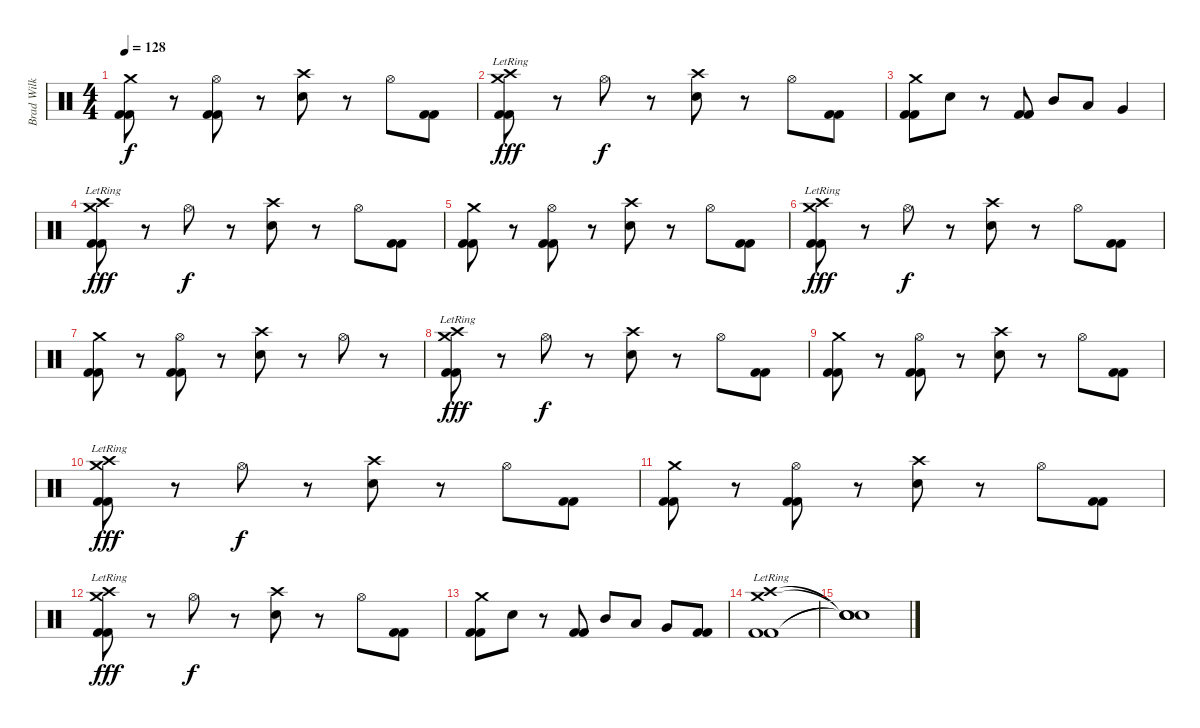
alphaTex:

\track ("Brad Wilk" "Brad Wilk") {instrument percussion}
\staff {score}
\articulation defaults
\ts (4 4)
\tempo 128
\clef neutral
\ks c
("Crash medium (hit)" "Kick (hit) 2" "Kick (hit) 2").8{dy f} r.8 ("Hi-Hat (open)" "Kick (hit) 2" "Kick (hit) 2").8 r.8 ("Crash high (hit)" "Electric Snare (hit)").8 r.8 "Hi-Hat (open)".8 ("Kick (hit) 2" "Kick (hit) 2").8 |
("Crash high (hit)"{lr} "Crash medium (hit)"{lr} "Kick (hit) 2" "Kick (hit) 2").8{dy fff} r.8 "Hi-Hat (open)".8{dy f} r.8 ("Crash high (hit)" "Electric Snare (hit)").8 r.8 "Hi-Hat (open)".8 ("Kick (hit) 2" "Kick (hit) 2").8 |
("Crash medium (hit)" "Kick (hit) 2" "Kick (hit) 2").8 "Electric Snare (hit)".8 r.8 ("Kick (hit) 2" "Kick (hit) 2").8 "Mid Tom (hit)".8 "Low Tom (hit)".8 "Very Low Tom (hit)".4 |
("Crash high (hit)"{lr} "Crash medium (hit)"{lr} "Kick (hit) 2" "Kick (hit) 2").8{dy fff} r.8 "Hi-Hat (open)".8{dy f} r.8 ("Crash high (hit)" "Electric Snare (hit)").8 r.8 "Hi-Hat (open)".8 ("Kick (hit) 2" "Kick (hit) 2").8 |
("Crash medium (hit)" "Kick (hit) 2" "Kick (hit) 2").8 r.8 ("Hi-Hat (open)" "Kick (hit) 2" "Kick (hit) 2").8 r.8 ("Crash high (hit)" "Electric Snare (hit)").8 r.8 "Hi-Hat (open)".8 ("Kick (hit) 2" "Kick (hit) 2").8 |
("Crash high (hit)"{lr} "Crash medium (hit)"{lr} "Kick (hit) 2" "Kick (hit) 2").8{dy fff} r.8 "Hi-Hat (open)".8{dy f} r.8 ("Crash high (hit)" "Electric Snare (hit)").8 r.8 "Hi-Hat (open)".8 ("Kick (hit) 2" "Kick (hit) 2").8 |
("Crash medium (hit)" "Kick (hit) 2" "Kick (hit) 2").8 r.8 ("Hi-Hat (open)" "Kick (hit) 2" "Kick (hit) 2").8 r.8 ("Crash high (hit)" "Electric Snare (hit)").8 r.8 "Hi-Hat (open)".8 r.8 |
("Crash high (hit)"{lr} "Crash medium (hit)"{lr} "Kick (hit) 2" "Kick (hit) 2").8{dy fff} r.8 "Hi-Hat (open)".8{dy f} r.8 ("Crash high (hit)" "Electric Snare (hit)").8 r.8 "Hi-Hat (open)".8 ("Kick (hit) 2" "Kick (hit) 2").8 |
("Crash medium (hit)" "Kick (hit) 2" "Kick (hit) 2").8 r.8 ("Hi-Hat (open)" "Kick (hit) 2" "Kick (hit) 2").8 r.8 ("Crash high (hit)" "Electric Snare (hit)").8 r.8 "Hi-Hat (open)".8 ("Kick (hit) 2" "Kick (hit) 2").8 |
("Crash high (hit)"{lr} "Crash medium (hit)"{lr} "Kick (hit) 2" "Kick (hit) 2").8{dy fff} r.8 "Hi-Hat (open)".8{dy f} r.8 ("Crash high (hit)" "Electric Snare (hit)").8 r.8 "Hi-Hat (open)".8 ("Kick (hit) 2" "Kick (hit) 2").8 |
("Crash medium (hit)" "Kick (hit) 2" "Kick (hit) 2").8 r.8 ("Hi-Hat (open)" "Kick (hit) 2" "Kick (hit) 2").8 r.8 ("Crash high (hit)" "Electric Snare (hit)").8 r.8 "Hi-Hat (open)".8 ("Kick (hit) 2" "Kick (hit) 2").8 |
("Crash high (hit)"{lr} "Crash medium (hit)"{lr} "Kick (hit) 2" "Kick (hit) 2").8{dy fff} r.8 "Hi-Hat (open)".8{dy f} r.8 ("Crash high (hit)" "Electric Snare (hit)").8 r.8 "Hi-Hat (open)".8 ("Kick (hit) 2" "Kick (hit) 2").8 |
("Crash medium (hit)" "Kick (hit) 2" "Kick (hit) 2").8 "Electric Snare (hit)".8 r.8 ("Kick (hit) 2" "Kick (hit) 2").8 "Mid Tom (hit)".8 "Low Tom (hit)".8 "Very Low Tom (hit)".8 ("Kick (hit) 2" "Kick (hit) 2").8 |
("Crash medium (hit)"{lr} "Crash high (hit)"{lr} "Kick (hit) 2" "Kick (hit) 2").1 |
("Snare (hit)"{t} "Snare (hit)"{t} "Snare (hit)"{t} "Snare (hit)"{t}).1
